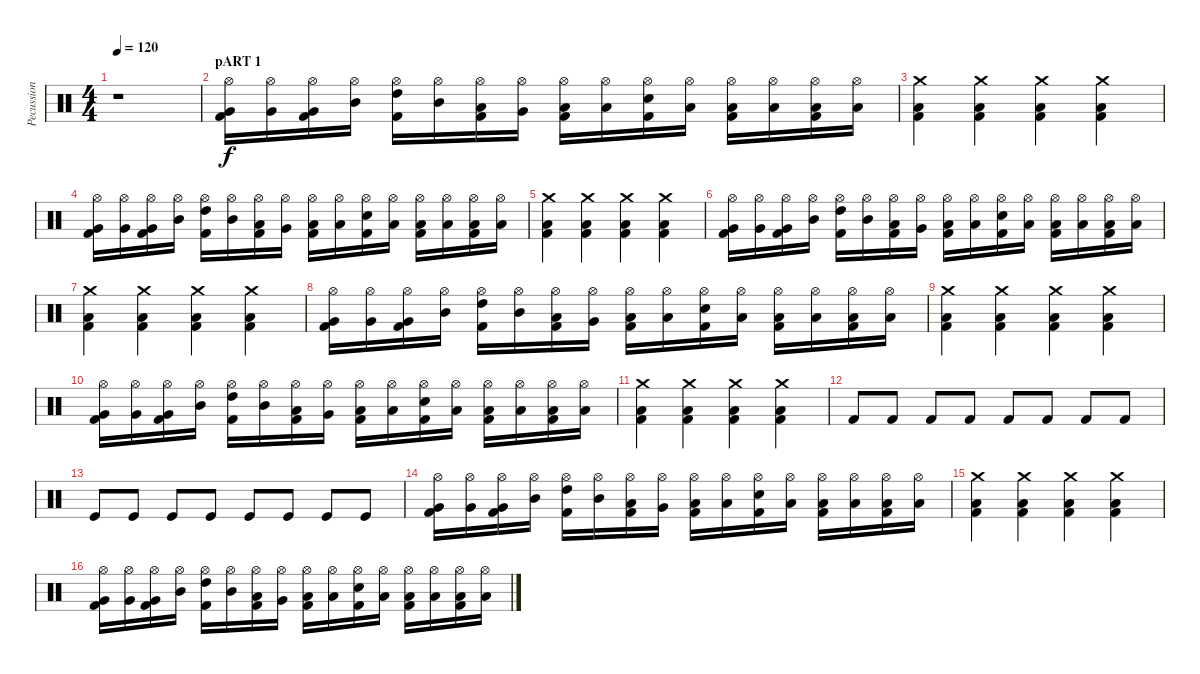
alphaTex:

\track ("Pecussion" "Pecussion") {instrument percussion}
\staff {score}
\articulation defaults
\ts (4 4)
\tempo 120
\clef neutral
\ks c
r.1{dy f} |
\section ("" "pART 1")
("Hi-Hat (open)" "Very Low Tom (hit)" "Kick (hit) 2").16 ("Hi-Hat (open)" "Very Low Tom (hit)").16 ("Hi-Hat (open)" "Very Low Tom (hit)" "Kick (hit) 2").16 ("Hi-Hat (open)" "Mid Tom (hit)").16 ("Hi-Hat (open)" "High Tom (hit)" "Kick (hit) 2").16 ("Hi-Hat (open)" "Mid Tom (hit)").16 ("Hi-Hat (open)" "Low Floor Tom (hit)" "Kick (hit) 2").16 ("Hi-Hat (open)" "Very Low Tom (hit)").16 ("Hi-Hat (open)" "Low Floor Tom (hit)" "Kick (hit) 2").16 ("Hi-Hat (open)" "Low Floor Tom (hit)").16 ("Hi-Hat (open)" "Snare (hit)" "Kick (hit) 2").16 ("Hi-Hat (open)" "Low Floor Tom (hit)").16 ("Hi-Hat (open)" "Low Floor Tom (hit)" "Kick (hit) 2").16 ("Hi-Hat (open)" "Low Floor Tom (hit)").16 ("Hi-Hat (open)" "Low Floor Tom (hit)" "Kick (hit) 2").16 ("Hi-Hat (open)" "Low Floor Tom (hit)").16 |
("Crash medium (hit)" "Low Floor Tom (hit)" "Kick (hit) 2").4 ("Crash medium (hit)" "Low Floor Tom (hit)" "Kick (hit) 2").4 ("Crash medium (hit)" "Low Floor Tom (hit)" "Kick (hit) 2").4 ("Crash medium (hit)" "Low Floor Tom (hit)" "Kick (hit) 2").4 |
("Hi-Hat (open)" "Very Low Tom (hit)" "Kick (hit) 2").16 ("Hi-Hat (open)" "Very Low Tom (hit)").16 ("Hi-Hat (open)" "Very Low Tom (hit)" "Kick (hit) 2").16 ("Hi-Hat (open)" "Mid Tom (hit)").16 ("Hi-Hat (open)" "High Tom (hit)" "Kick (hit) 2").16 ("Hi-Hat (open)" "Mid Tom (hit)").16 ("Hi-Hat (open)" "Low Floor Tom (hit)" "Kick (hit) 2").16 ("Hi-Hat (open)" "Very Low Tom (hit)").16 ("Hi-Hat (open)" "Low Floor Tom (hit)" "Kick (hit) 2").16 ("Hi-Hat (open)" "Low Floor Tom (hit)").16 ("Hi-Hat (open)" "Snare (hit)" "Kick (hit) 2").16 ("Hi-Hat (open)" "Low Floor Tom (hit)").16 ("Hi-Hat (open)" "Low Floor Tom (hit)" "Kick (hit) 2").16 ("Hi-Hat (open)" "Low Floor Tom (hit)").16 ("Hi-Hat (open)" "Low Floor Tom (hit)" "Kick (hit) 2").16 ("Hi-Hat (open)" "Low Floor Tom (hit)").16 |
("Crash medium (hit)" "Low Floor Tom (hit)" "Kick (hit) 2").4 ("Crash medium (hit)" "Low Floor Tom (hit)" "Kick (hit) 2").4 ("Crash medium (hit)" "Low Floor Tom (hit)" "Kick (hit) 2").4 ("Crash medium (hit)" "Low Floor Tom (hit)" "Kick (hit) 2").4 |
("Hi-Hat (open)" "Very Low Tom (hit)" "Kick (hit) 2").16 ("Hi-Hat (open)" "Very Low Tom (hit)").16 ("Hi-Hat (open)" "Very Low Tom (hit)" "Kick (hit) 2").16 ("Hi-Hat (open)" "Mid Tom (hit)").16 ("Hi-Hat (open)" "High Tom (hit)" "Kick (hit) 2").16 ("Hi-Hat (open)" "Mid Tom (hit)").16 ("Hi-Hat (open)" "Low Floor Tom (hit)" "Kick (hit) 2").16 ("Hi-Hat (open)" "Very Low Tom (hit)").16 ("Hi-Hat (open)" "Low Floor Tom (hit)" "Kick (hit) 2").16 ("Hi-Hat (open)" "Low Floor Tom (hit)").16 ("Hi-Hat (open)" "Snare (hit)" "Kick (hit) 2").16 ("Hi-Hat (open)" "Low Floor Tom (hit)").16 ("Hi-Hat (open)" "Low Floor Tom (hit)" "Kick (hit) 2").16 ("Hi-Hat (open)" "Low Floor Tom (hit)").16 ("Hi-Hat (open)" "Low Floor Tom (hit)" "Kick (hit) 2").16 ("Hi-Hat (open)" "Low Floor Tom (hit)").16 |
("Crash medium (hit)" "Low Floor Tom (hit)" "Kick (hit) 2").4 ("Crash medium (hit)" "Low Floor Tom (hit)" "Kick (hit) 2").4 ("Crash medium (hit)" "Low Floor Tom (hit)" "Kick (hit) 2").4 ("Crash medium (hit)" "Low Floor Tom (hit)" "Kick (hit) 2").4 |
("Hi-Hat (open)" "Very Low Tom (hit)" "Kick (hit) 2").16 ("Hi-Hat (open)" "Very Low Tom (hit)").16 ("Hi-Hat (open)" "Very Low Tom (hit)" "Kick (hit) 2").16 ("Hi-Hat (open)" "Mid Tom (hit)").16 ("Hi-Hat (open)" "High Tom (hit)" "Kick (hit) 2").16 ("Hi-Hat (open)" "Mid Tom (hit)").16 ("Hi-Hat (open)" "Low Floor Tom (hit)" "Kick (hit) 2").16 ("Hi-Hat (open)" "Very Low Tom (hit)").16 ("Hi-Hat (open)" "Low Floor Tom (hit)" "Kick (hit) 2").16 ("Hi-Hat (open)" "Low Floor Tom (hit)").16 ("Hi-Hat (open)" "Snare (hit)" "Kick (hit) 2").16 ("Hi-Hat (open)" "Low Floor Tom (hit)").16 ("Hi-Hat (open)" "Low Floor Tom (hit)" "Kick (hit) 2").16 ("Hi-Hat (open)" "Low Floor Tom (hit)").16 ("Hi-Hat (open)" "Low Floor Tom (hit)" "Kick (hit) 2").16 ("Hi-Hat (open)" "Low Floor Tom (hit)").16 |
("Crash medium (hit)" "Low Floor Tom (hit)" "Kick (hit) 2").4 ("Crash medium (hit)" "Low Floor Tom (hit)" "Kick (hit) 2").4 ("Crash medium (hit)" "Low Floor Tom (hit)" "Kick (hit) 2").4 ("Crash medium (hit)" "Low Floor Tom (hit)" "Kick (hit) 2").4 |
("Hi-Hat (open)" "Very Low Tom (hit)" "Kick (hit) 2").16 ("Hi-Hat (open)" "Very Low Tom (hit)").16 ("Hi-Hat (open)" "Very Low Tom (hit)" "Kick (hit) 2").16 ("Hi-Hat (open)" "Mid Tom (hit)").16 ("Hi-Hat (open)" "High Tom (hit)" "Kick (hit) 2").16 ("Hi-Hat (open)" "Mid Tom (hit)").16 ("Hi-Hat (open)" "Low Floor Tom (hit)" "Kick (hit) 2").16 ("Hi-Hat (open)" "Very Low Tom (hit)").16 ("Hi-Hat (open)" "Low Floor Tom (hit)" "Kick (hit) 2").16 ("Hi-Hat (open)" "Low Floor Tom (hit)").16 ("Hi-Hat (open)" "Snare (hit)" "Kick (hit) 2").16 ("Hi-Hat (open)" "Low Floor Tom (hit)").16 ("Hi-Hat (open)" "Low Floor Tom (hit)" "Kick (hit) 2").16 ("Hi-Hat (open)" "Low Floor Tom (hit)").16 ("Hi-Hat (open)" "Low Floor Tom (hit)" "Kick (hit) 2").16 ("Hi-Hat (open)" "Low Floor Tom (hit)").16 |
("Crash medium (hit)" "Low Floor Tom (hit)" "Kick (hit) 2").4 ("Crash medium (hit)" "Low Floor Tom (hit)" "Kick (hit) 2").4 ("Crash medium (hit)" "Low Floor Tom (hit)" "Kick (hit) 2").4 ("Crash medium (hit)" "Low Floor Tom (hit)" "Kick (hit) 2").4 |
"Kick (hit) 2".8 "Kick (hit) 2".8 "Kick (hit) 2".8 "Kick (hit) 2".8 "Kick (hit) 2".8 "Kick (hit) 2".8 "Kick (hit) 2".8 "Kick (hit) 2".8 |
"Kick (hit)".8 "Kick (hit)".8 "Kick (hit)".8 "Kick (hit)".8 "Kick (hit)".8 "Kick (hit)".8 "Kick (hit)".8 "Kick (hit)".8 |
("Hi-Hat (open)" "Very Low Tom (hit)" "Kick (hit) 2").16 ("Hi-Hat (open)" "Very Low Tom (hit)").16 ("Hi-Hat (open)" "Very Low Tom (hit)" "Kick (hit) 2").16 ("Hi-Hat (open)" "Mid Tom (hit)").16 ("Hi-Hat (open)" "High Tom (hit)" "Kick (hit) 2").16 ("Hi-Hat (open)" "Mid Tom (hit)").16 ("Hi-Hat (open)" "Low Floor Tom (hit)" "Kick (hit) 2").16 ("Hi-Hat (open)" "Very Low Tom (hit)").16 ("Hi-Hat (open)" "Low Floor Tom (hit)" "Kick (hit) 2").16 ("Hi-Hat (open)" "Low Floor Tom (hit)").16 ("Hi-Hat (open)" "Snare (hit)" "Kick (hit) 2").16 ("Hi-Hat (open)" "Low Floor Tom (hit)").16 ("Hi-Hat (open)" "Low Floor Tom (hit)" "Kick (hit) 2").16 ("Hi-Hat (open)" "Low Floor Tom (hit)").16 ("Hi-Hat (open)" "Low Floor Tom (hit)" "Kick (hit) 2").16 ("Hi-Hat (open)" "Low Floor Tom (hit)").16 |
("Crash medium (hit)" "Low Floor Tom (hit)" "Kick (hit) 2").4 ("Crash medium (hit)" "Low Floor Tom (hit)" "Kick (hit) 2").4 ("Crash medium (hit)" "Low Floor Tom (hit)" "Kick (hit) 2").4 ("Crash medium (hit)" "Low Floor Tom (hit)" "Kick (hit) 2").4 |
("Hi-Hat (open)" "Very Low Tom (hit)" "Kick (hit) 2").16 ("Hi-Hat (open)" "Very Low Tom (hit)").16 ("Hi-Hat (open)" "Very Low Tom (hit)" "Kick (hit) 2").16 ("Hi-Hat (open)" "Mid Tom (hit)").16 ("Hi-Hat (open)" "High Tom (hit)" "Kick (hit) 2").16 ("Hi-Hat (open)" "Mid Tom (hit)").16 ("Hi-Hat (open)" "Low Floor Tom (hit)" "Kick (hit) 2").16 ("Hi-Hat (open)" "Very Low Tom (hit)").16 ("Hi-Hat (open)" "Low Floor Tom (hit)" "Kick (hit) 2").16 ("Hi-Hat (open)" "Low Floor Tom (hit)").16 ("Hi-Hat (open)" "Snare (hit)" "Kick (hit) 2").16 ("Hi-Hat (open)" "Low Floor Tom (hit)").16 ("Hi-Hat (open)" "Low Floor Tom (hit)" "Kick (hit) 2").16 ("Hi-Hat (open)" "Low Floor Tom (hit)").16 ("Hi-Hat (open)" "Low Floor Tom (hit)" "Kick (hit) 2").16 ("Hi-Hat (open)" "Low Floor Tom (hit)").16
